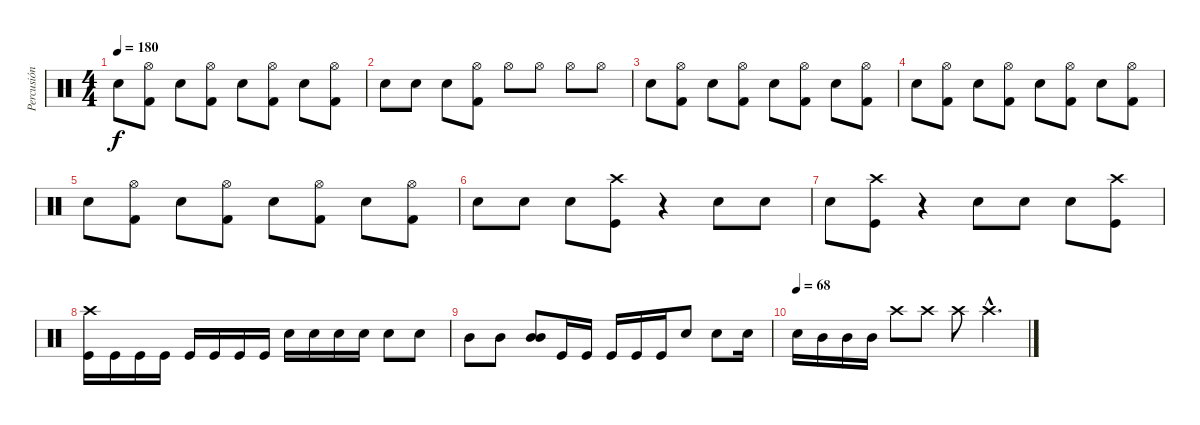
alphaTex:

\track ("Percusión" "Percusión") {instrument percussion}
\staff {score}
\articulation defaults
\ts (4 4)
\tempo 180
\clef neutral
\ks c "Electric Snare (hit)".8{dy f}
("Hi-Hat (open)" "Kick (hit) 2").8 "Electric Snare (hit)".8 ("Hi-Hat (open)" "Kick (hit) 2").8 "Electric Snare (hit)".8 ("Hi-Hat (open)" "Kick (hit) 2").8 "Electric Snare (hit)".8 ("Hi-Hat (open)" "Kick (hit) 2").8 |
"Electric Snare (hit)".8 "Electric Snare (hit)".8 "Electric Snare (hit)".8 ("Hi-Hat (open)" "Kick (hit) 2").8 "Hi-Hat (open)".8 "Hi-Hat (open)".8 "Hi-Hat (open)".8 "Hi-Hat (open)".8 |
"Electric Snare (hit)".8 ("Hi-Hat (open)" "Kick (hit) 2").8 "Electric Snare (hit)".8 ("Hi-Hat (open)" "Kick (hit) 2").8 "Electric Snare (hit)".8 ("Hi-Hat (open)" "Kick (hit) 2").8 "Electric Snare (hit)".8 ("Hi-Hat (open)" "Kick (hit) 2").8 |
"Electric Snare (hit)".8 ("Hi-Hat (open)" "Kick (hit) 2").8 "Electric Snare (hit)".8 ("Hi-Hat (open)" "Kick (hit) 2").8 "Electric Snare (hit)".8 ("Hi-Hat (open)" "Kick (hit) 2").8 "Electric Snare (hit)".8 ("Hi-Hat (open)" "Kick (hit) 2").8 |
"Electric Snare (hit)".8 ("Hi-Hat (open)" "Kick (hit) 2").8 "Electric Snare (hit)".8 ("Hi-Hat (open)" "Kick (hit) 2").8 "Electric Snare (hit)".8 ("Hi-Hat (open)" "Kick (hit) 2").8 "Electric Snare (hit)".8 ("Hi-Hat (open)" "Kick (hit) 2").8 |
"Electric Snare (hit)".8 "Electric Snare (hit)".8 "Electric Snare (hit)".8 ("Crash high (hit)" "Kick (hit)").8 r.4 "Electric Snare (hit)".8 "Electric Snare (hit)".8 |
"Electric Snare (hit)".8 ("Crash high (hit)" "Kick (hit)").8 r.4 "Electric Snare (hit)".8 "Electric Snare (hit)".8 "Electric Snare (hit)".8 ("Crash high (hit)" "Kick (hit)").8 |
("Crash high (hit)" "Kick (hit)").16 "Kick (hit)".16 "Kick (hit)".16 "Kick (hit)".16 "Kick (hit)".16 "Kick (hit)".16 "Kick (hit)".16 "Kick (hit)".16 "Electric Snare (hit)".16 "Electric Snare (hit)".16 "Electric Snare (hit)".16 "Electric Snare (hit)".16 "Electric Snare (hit)".8 "Electric Snare (hit)".8 |
"Mid Tom (hit)".8 "Mid Tom (hit)".8 ("Mid Tom (hit)" "Mid Tom (hit)").8 "Kick (hit)".16 "Kick (hit)".16 "Kick (hit)".16 "Kick (hit)".16 "Kick (hit)".16 "Electric Snare (hit)".8 "Electric Snare (hit)".8 "Electric Snare (hit)".16 |
\tempo (68)
"Electric Snare (hit)".16 "Mid Tom (hit)".16 "Mid Tom (hit)".16 "Mid Tom (hit)".16 "Crash high (hit)".8 "Crash high (hit)".8 "Crash high (hit)".8 "Crash high (hit)"{hac}.4{d}
